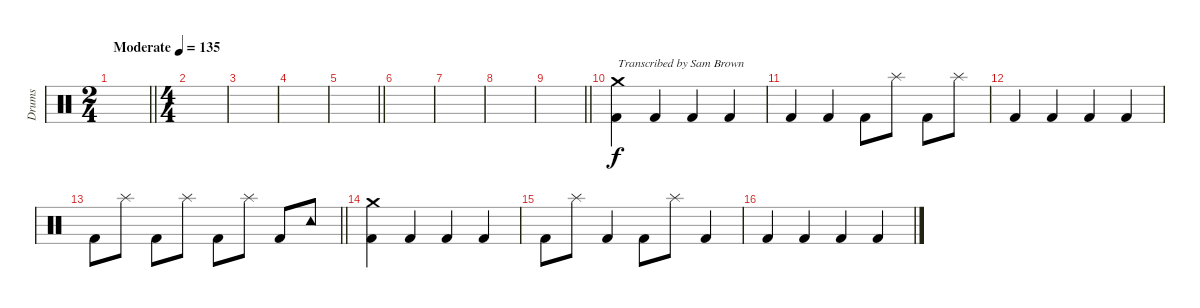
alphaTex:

\track ("Drums" "Drums") {instrument percussion}
\staff {score}
\articulation defaults
\ts (2 4)
\tempo (135 "Moderate")
\clef neutral
\barLineRight lightlight
\ks c
|
\ts (4 4)
\section ("" "")
|
|
|
\barLineRight lightlight
|
\section ("" "")
|
|
|
\barLineRight lightlight
|
\section ("" "")
("Kick (hit) 2" "Crash medium (hit)").4{txt "Transcribed by Sam Brown"} "Kick (hit) 2".4 "Kick (hit) 2".4 "Kick (hit) 2".4 |
"Kick (hit) 2".4 "Kick (hit) 2".4 "Kick (hit) 2".8 "Splash (hit)".8 "Kick (hit) 2".8 "Splash (hit)".8 |
"Kick (hit) 2".4 "Kick (hit) 2".4 "Kick (hit) 2".4 "Kick (hit) 2".4 |
\barLineRight lightlight "Kick (hit) 2".8 "Splash (hit)".8 "Kick (hit) 2".8 "Splash (hit)".8 "Kick (hit) 2".8 "Splash (hit)".8 "Kick (hit) 2".8 "Tambourine (hit)".8
|
\section ("" "")
("Kick (hit) 2" "Crash medium (hit)").4 "Kick (hit) 2".4 "Kick (hit) 2".4 "Kick (hit) 2".4 |
"Kick (hit) 2".8 "Splash (hit)".8 "Kick (hit) 2".4 "Kick (hit) 2".8 "Splash (hit)".8 "Kick (hit) 2".4 |
"Kick (hit) 2".4 "Kick (hit) 2".4 "Kick (hit) 2".4 "Kick (hit) 2".4
